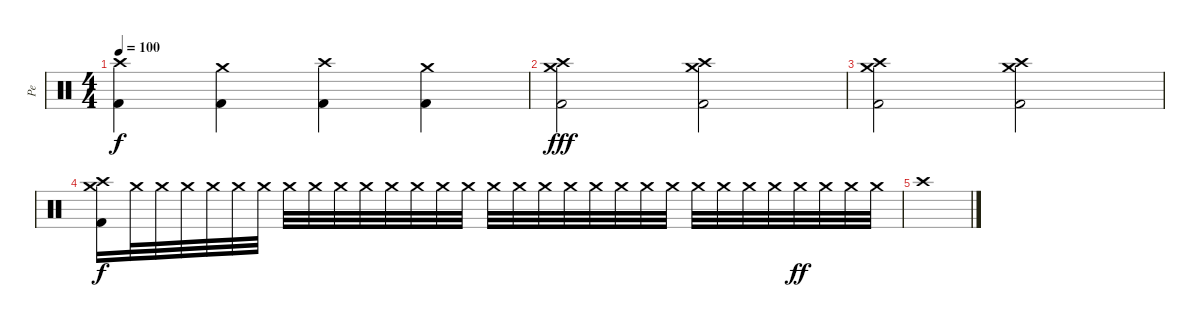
\track ("Pe" "Pe") {instrument percussion}
\staff {score}
\articulation defaults
\ts (4 4)
\tempo 100
\clef neutral
\ks c
("Crash high (hit)" "Kick (hit) 2").4{dy f} ("Crash medium (hit)" "Kick (hit) 2").4 ("Crash high (hit)" "Kick (hit) 2").4 ("Crash medium (hit)" "Kick (hit) 2").4 |
("Crash high (hit)" "Crash medium (hit)" "Kick (hit) 2").2{dy fff} ("Crash high (hit)" "Crash medium (hit)" "Kick (hit) 2").2 |
("Crash high (hit)" "Crash medium (hit)" "Kick (hit) 2").2 ("Crash high (hit)" "Crash medium (hit)" "Kick (hit) 2").2 |
("Crash high (hit)" "Crash medium (hit)" "Kick (hit) 2").16{dy f} "Crash medium (hit)".32 "Crash medium (hit)".32 "Crash medium (hit)".32 "Crash medium (hit)".32 "Crash medium (hit)".32 "Crash medium (hit)".32 "Crash medium (hit)".32 "Crash medium (hit)".32 "Crash medium (hit)".32 "Crash medium (hit)".32 "Crash medium (hit)".32 "Crash medium (hit)".32 "Crash medium (hit)".32 "Crash medium (hit)".32 "Crash medium (hit)".32 "Crash medium (hit)".32 "Crash medium (hit)".32 "Crash medium (hit)".32 "Crash medium (hit)".32 "Crash medium (hit)".32 "Crash medium (hit)".32 "Crash medium (hit)".32 "Crash medium (hit)".32 "Crash medium (hit)".32 "Crash medium (hit)".32 "Crash medium (hit)".32 "Crash medium (hit)".32{dy ff} "Crash medium (hit)".32 "Crash medium (hit)".32 "Crash medium (hit)".32 |
"Crash high (hit)".1
